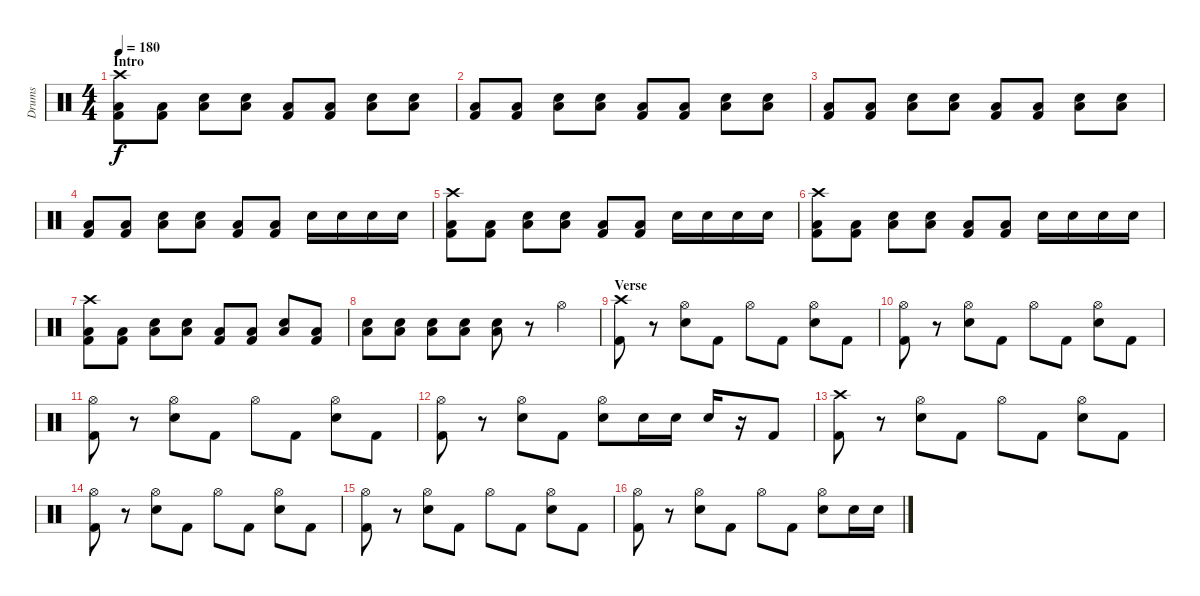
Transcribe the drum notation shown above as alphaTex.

\track ("Drums" "Drums") {instrument percussion}
\staff {score}
\articulation defaults
\ts (4 4)
\section ("" "Intro")
\tempo 180
\clef neutral
\ks c
("Crash high (hit)" "Kick (hit) 2" "Low Floor Tom (hit)").8{dy f} ("Kick (hit) 2" "Low Floor Tom (hit)").8 ("Electric Snare (hit)" "Low Floor Tom (hit)").8 ("Electric Snare (hit)" "Low Floor Tom (hit)").8 ("Kick (hit) 2" "Low Floor Tom (hit)").8 ("Kick (hit) 2" "Low Floor Tom (hit)").8 ("Electric Snare (hit)" "Low Floor Tom (hit)").8 ("Electric Snare (hit)" "Low Floor Tom (hit)").8 |
("Kick (hit) 2" "Low Floor Tom (hit)").8 ("Kick (hit) 2" "Low Floor Tom (hit)").8 ("Electric Snare (hit)" "Low Floor Tom (hit)").8 ("Electric Snare (hit)" "Low Floor Tom (hit)").8 ("Kick (hit) 2" "Low Floor Tom (hit)").8 ("Kick (hit) 2" "Low Floor Tom (hit)").8 ("Electric Snare (hit)" "Low Floor Tom (hit)").8 ("Electric Snare (hit)" "Low Floor Tom (hit)").8 |
("Kick (hit) 2" "Low Floor Tom (hit)").8 ("Kick (hit) 2" "Low Floor Tom (hit)").8 ("Electric Snare (hit)" "Low Floor Tom (hit)").8 ("Electric Snare (hit)" "Low Floor Tom (hit)").8 ("Kick (hit) 2" "Low Floor Tom (hit)").8 ("Kick (hit) 2" "Low Floor Tom (hit)").8 ("Electric Snare (hit)" "Low Floor Tom (hit)").8 ("Electric Snare (hit)" "Low Floor Tom (hit)").8 |
("Kick (hit) 2" "Low Floor Tom (hit)").8 ("Kick (hit) 2" "Low Floor Tom (hit)").8 ("Electric Snare (hit)" "Low Floor Tom (hit)").8 ("Electric Snare (hit)" "Low Floor Tom (hit)").8 ("Kick (hit) 2" "Low Floor Tom (hit)").8 ("Kick (hit) 2" "Low Floor Tom (hit)").8 "Electric Snare (hit)".16 "Electric Snare (hit)".16 "Electric Snare (hit)".16 "Electric Snare (hit)".16 |
("Crash high (hit)" "Kick (hit) 2" "Low Floor Tom (hit)").8 ("Kick (hit) 2" "Low Floor Tom (hit)").8 ("Electric Snare (hit)" "Low Floor Tom (hit)").8 ("Electric Snare (hit)" "Low Floor Tom (hit)").8 ("Kick (hit) 2" "Low Floor Tom (hit)").8 ("Kick (hit) 2" "Low Floor Tom (hit)").8 "Electric Snare (hit)".16 "Electric Snare (hit)".16 "Electric Snare (hit)".16 "Electric Snare (hit)".16 |
("Crash high (hit)" "Kick (hit) 2" "Low Floor Tom (hit)").8 ("Kick (hit) 2" "Low Floor Tom (hit)").8 ("Electric Snare (hit)" "Low Floor Tom (hit)").8 ("Electric Snare (hit)" "Low Floor Tom (hit)").8 ("Kick (hit) 2" "Low Floor Tom (hit)").8 ("Kick (hit) 2" "Low Floor Tom (hit)").8 "Electric Snare (hit)".16 "Electric Snare (hit)".16 "Electric Snare (hit)".16 "Electric Snare (hit)".16 |
("Crash high (hit)" "Kick (hit) 2" "Low Floor Tom (hit)").8 ("Kick (hit) 2" "Low Floor Tom (hit)").8 ("Electric Snare (hit)" "Low Floor Tom (hit)").8 ("Electric Snare (hit)" "Low Floor Tom (hit)").8 ("Kick (hit) 2" "Low Floor Tom (hit)").8 ("Kick (hit) 2" "Low Floor Tom (hit)").8 ("Electric Snare (hit)" "Low Floor Tom (hit)").8 ("Kick (hit) 2" "Low Floor Tom (hit)").8 |
("Electric Snare (hit)" "Low Floor Tom (hit)").8 ("Electric Snare (hit)" "Low Floor Tom (hit)").8 ("Electric Snare (hit)" "Low Floor Tom (hit)").8 ("Electric Snare (hit)" "Low Floor Tom (hit)").8 ("Electric Snare (hit)" "Low Floor Tom (hit)").8 r.8 "Hi-Hat (open)".4 |
\section ("" "Verse")
("Crash high (hit)" "Kick (hit) 2").8 r.8 ("Hi-Hat (open)" "Electric Snare (hit)").8 "Kick (hit) 2".8 "Hi-Hat (open)".8 "Kick (hit) 2".8 ("Hi-Hat (open)" "Electric Snare (hit)").8 "Kick (hit) 2".8 |
("Hi-Hat (open)" "Kick (hit) 2").8 r.8 ("Hi-Hat (open)" "Electric Snare (hit)").8 "Kick (hit) 2".8 "Hi-Hat (open)".8 "Kick (hit) 2".8 ("Hi-Hat (open)" "Electric Snare (hit)").8 "Kick (hit) 2".8 |
("Hi-Hat (open)" "Kick (hit) 2").8 r.8 ("Hi-Hat (open)" "Electric Snare (hit)").8 "Kick (hit) 2".8 "Hi-Hat (open)".8 "Kick (hit) 2".8 ("Hi-Hat (open)" "Electric Snare (hit)").8 "Kick (hit) 2".8 |
("Hi-Hat (open)" "Kick (hit) 2").8 r.8 ("Hi-Hat (open)" "Electric Snare (hit)").8 "Kick (hit) 2".8 ("Hi-Hat (open)" "Electric Snare (hit)").8 "Electric Snare (hit)".16 "Electric Snare (hit)".16 "Electric Snare (hit)".16 r.16 "Kick (hit) 2".8 |
("Crash high (hit)" "Kick (hit) 2").8 r.8 ("Hi-Hat (open)" "Electric Snare (hit)").8 "Kick (hit) 2".8 "Hi-Hat (open)".8 "Kick (hit) 2".8 ("Hi-Hat (open)" "Electric Snare (hit)").8 "Kick (hit) 2".8 |
("Hi-Hat (open)" "Kick (hit) 2").8 r.8 ("Hi-Hat (open)" "Electric Snare (hit)").8 "Kick (hit) 2".8 "Hi-Hat (open)".8 "Kick (hit) 2".8 ("Hi-Hat (open)" "Electric Snare (hit)").8 "Kick (hit) 2".8 |
("Hi-Hat (open)" "Kick (hit) 2").8 r.8 ("Hi-Hat (open)" "Electric Snare (hit)").8 "Kick (hit) 2".8 "Hi-Hat (open)".8 "Kick (hit) 2".8 ("Hi-Hat (open)" "Electric Snare (hit)").8 "Kick (hit) 2".8 |
("Hi-Hat (open)" "Kick (hit) 2").8 r.8 ("Hi-Hat (open)" "Electric Snare (hit)").8 "Kick (hit) 2".8 "Hi-Hat (open)".8 "Kick (hit) 2".8 ("Hi-Hat (open)" "Electric Snare (hit)").8 "Electric Snare (hit)".16 "Electric Snare (hit)".16
